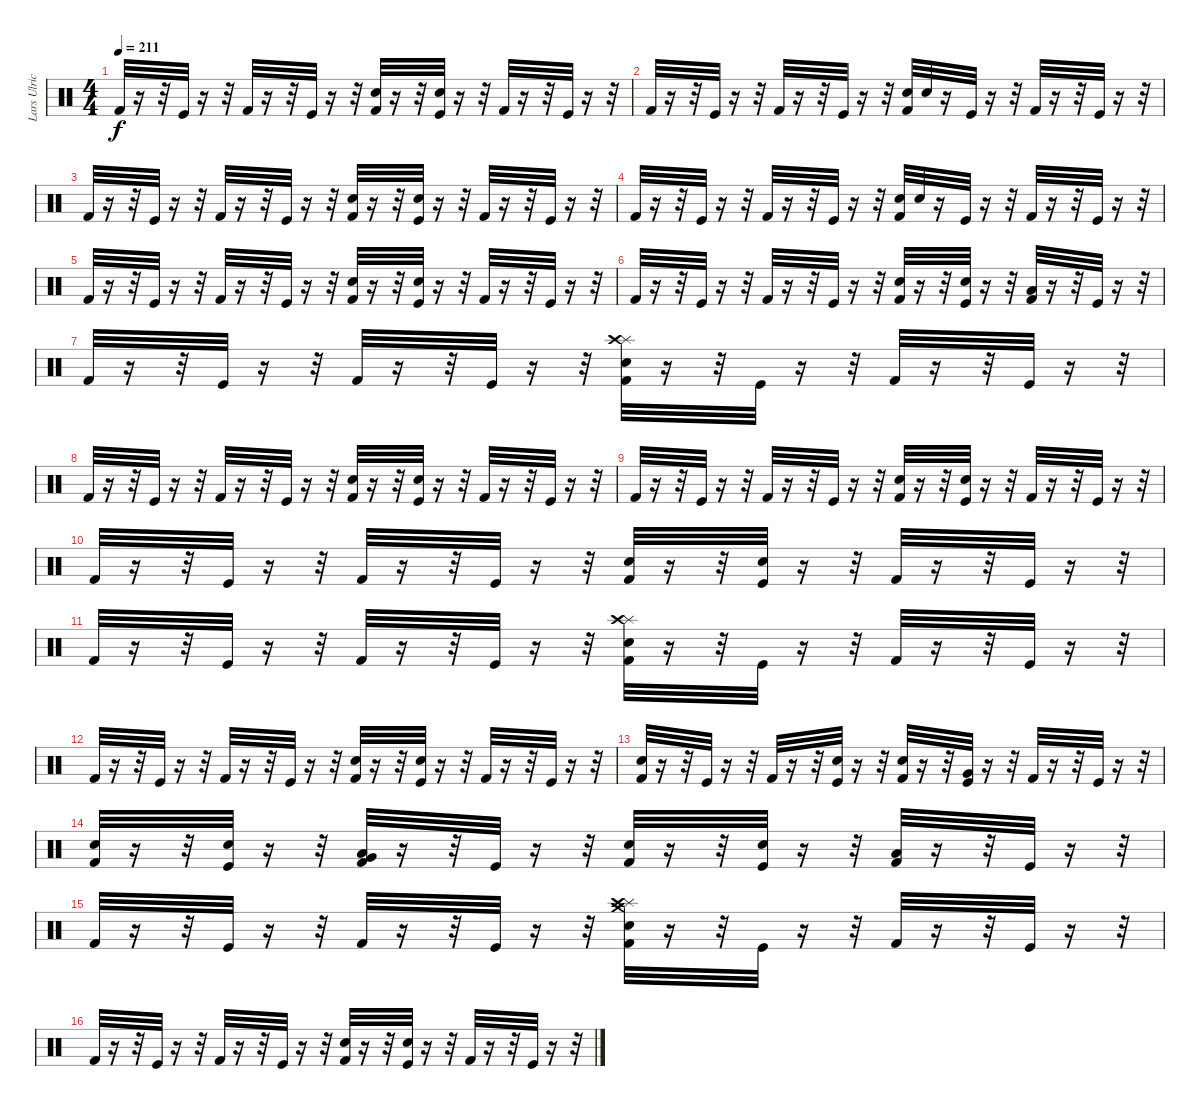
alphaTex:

\track ("Lars Ulrich (Drums)" "Lars Ulric") {instrument percussion}
\staff {score}
\articulation defaults
\ts (4 4)
\tempo 211
\clef neutral
\ks c "Kick (hit) 2".32{dy f}
r.16 r.32 "Kick (hit)".32 r.16 r.32 "Kick (hit) 2".32 r.16 r.32 "Kick (hit)".32 r.16 r.32 ("Snare (hit) 2" "Kick (hit) 2").32 r.16 r.32 ("Snare (hit) 2" "Kick (hit)").32 r.16 r.32 "Kick (hit) 2".32 r.16 r.32 "Kick (hit)".32 r.16 r.32 |
"Kick (hit) 2".32 r.16 r.32 "Kick (hit)".32 r.16 r.32 "Kick (hit) 2".32 r.16 r.32 "Kick (hit)".32 r.16 r.32 ("Snare (hit) 2" "Kick (hit) 2").32 "Snare (hit) 2".32 r.16 "Kick (hit)".32 r.16 r.32 "Kick (hit) 2".32 r.16 r.32 "Kick (hit)".32 r.16 r.32 |
"Kick (hit) 2".32 r.16 r.32 "Kick (hit)".32 r.16 r.32 "Kick (hit) 2".32 r.16 r.32 "Kick (hit)".32 r.16 r.32 ("Snare (hit) 2" "Kick (hit) 2").32 r.16 r.32 ("Snare (hit) 2" "Kick (hit)").32 r.16 r.32 "Kick (hit) 2".32 r.16 r.32 "Kick (hit)".32 r.16 r.32 |
"Kick (hit) 2".32 r.16 r.32 "Kick (hit)".32 r.16 r.32 "Kick (hit) 2".32 r.16 r.32 "Kick (hit)".32 r.16 r.32 ("Snare (hit) 2" "Kick (hit) 2").32 "Snare (hit) 2".32 r.16 "Kick (hit)".32 r.16 r.32 "Kick (hit) 2".32 r.16 r.32 "Kick (hit)".32 r.16 r.32 |
"Kick (hit) 2".32 r.16 r.32 "Kick (hit)".32 r.16 r.32 "Kick (hit) 2".32 r.16 r.32 "Kick (hit)".32 r.16 r.32 ("Snare (hit) 2" "Kick (hit) 2").32 r.16 r.32 ("Snare (hit) 2" "Kick (hit)").32 r.16 r.32 "Kick (hit) 2".32 r.16 r.32 "Kick (hit)".32 r.16 r.32 |
"Kick (hit) 2".32 r.16 r.32 "Kick (hit)".32 r.16 r.32 "Kick (hit) 2".32 r.16 r.32 "Kick (hit)".32 r.16 r.32 ("Snare (hit) 2" "Kick (hit) 2").32 r.16 r.32 ("Snare (hit) 2" "Kick (hit)").32 r.16 r.32 ("Low Tom (hit)" "Kick (hit) 2").32 r.16 r.32 "Kick (hit)".32 r.16 r.32 |
"Kick (hit) 2".32 r.16 r.32 "Kick (hit)".32 r.16 r.32 "Kick (hit) 2".32 r.16 r.32 "Kick (hit)".32 r.16 r.32 ("Splash (hit)" "Crash high (hit)" "Snare (hit) 2" "Kick (hit) 2").32 r.16 r.32 "Kick (hit)".32 r.16 r.32 "Kick (hit) 2".32 r.16 r.32 "Kick (hit)".32 r.16 r.32 |
"Kick (hit) 2".32 r.16 r.32 "Kick (hit)".32 r.16 r.32 "Kick (hit) 2".32 r.16 r.32 "Kick (hit)".32 r.16 r.32 ("Snare (hit) 2" "Kick (hit) 2").32 r.16 r.32 ("Snare (hit) 2" "Kick (hit)").32 r.16 r.32 "Kick (hit) 2".32 r.16 r.32 "Kick (hit)".32 r.16 r.32 |
"Kick (hit) 2".32 r.16 r.32 "Kick (hit)".32 r.16 r.32 "Kick (hit) 2".32 r.16 r.32 "Kick (hit)".32 r.16 r.32 ("Snare (hit) 2" "Kick (hit) 2").32 r.16 r.32 ("Snare (hit) 2" "Kick (hit)").32 r.16 r.32 "Kick (hit) 2".32 r.16 r.32 "Kick (hit)".32 r.16 r.32 |
"Kick (hit) 2".32 r.16 r.32 "Kick (hit)".32 r.16 r.32 "Kick (hit) 2".32 r.16 r.32 "Kick (hit)".32 r.16 r.32 ("Snare (hit) 2" "Kick (hit) 2").32 r.16 r.32 ("Snare (hit) 2" "Kick (hit)").32 r.16 r.32 "Kick (hit) 2".32 r.16 r.32 "Kick (hit)".32 r.16 r.32 |
"Kick (hit) 2".32 r.16 r.32 "Kick (hit)".32 r.16 r.32 "Kick (hit) 2".32 r.16 r.32 "Kick (hit)".32 r.16 r.32 ("Splash (hit)" "Crash high (hit)" "Snare (hit) 2" "Kick (hit) 2").32 r.16 r.32 "Kick (hit)".32 r.16 r.32 "Kick (hit) 2".32 r.16 r.32 "Kick (hit)".32 r.16 r.32 |
"Kick (hit) 2".32 r.16 r.32 "Kick (hit)".32 r.16 r.32 "Kick (hit) 2".32 r.16 r.32 "Kick (hit)".32 r.16 r.32 ("Snare (hit) 2" "Kick (hit) 2").32 r.16 r.32 ("Snare (hit) 2" "Kick (hit)").32 r.16 r.32 "Kick (hit) 2".32 r.16 r.32 "Kick (hit)".32 r.16 r.32 |
("Snare (hit) 2" "Kick (hit) 2").32 r.16 r.32 "Kick (hit)".32 r.16 r.32 "Kick (hit) 2".32 r.16 r.32 ("Snare (hit) 2" "Kick (hit)").32 r.16 r.32 ("Snare (hit) 2" "Kick (hit) 2").32 r.16 r.32 ("Very Low Tom (hit)" "Kick (hit)").32 r.16 r.32 "Kick (hit) 2".32 r.16 r.32 "Kick (hit)".32 r.16 r.32 |
("Snare (hit) 2" "Kick (hit) 2").32 r.16 r.32 ("Snare (hit) 2" "Kick (hit)").32 r.16 r.32 ("Very Low Tom (hit)" "Low Floor Tom (hit)" "Kick (hit) 2").32 r.16 r.32 "Kick (hit)".32 r.16 r.32 ("Snare (hit) 2" "Kick (hit) 2").32 r.16 r.32 ("Snare (hit) 2" "Kick (hit)").32 r.16 r.32 ("Low Floor Tom (hit)" "Kick (hit) 2").32 r.16 r.32 "Kick (hit)".32 r.16 r.32 |
"Kick (hit) 2".32 r.16 r.32 "Kick (hit)".32 r.16 r.32 "Kick (hit) 2".32 r.16 r.32 "Kick (hit)".32 r.16 r.32 ("Crash medium (hit)" "Splash (hit)" "Crash high (hit)" "Snare (hit) 2" "Kick (hit) 2").32 r.16 r.32 "Kick (hit)".32 r.16 r.32 "Kick (hit) 2".32 r.16 r.32 "Kick (hit)".32 r.16 r.32 |
"Kick (hit) 2".32 r.16 r.32 "Kick (hit)".32 r.16 r.32 "Kick (hit) 2".32 r.16 r.32 "Kick (hit)".32 r.16 r.32 ("Snare (hit) 2" "Kick (hit) 2").32 r.16 r.32 ("Snare (hit) 2" "Kick (hit)").32 r.16 r.32 "Kick (hit) 2".32 r.16 r.32 "Kick (hit)".32 r.16 r.32
